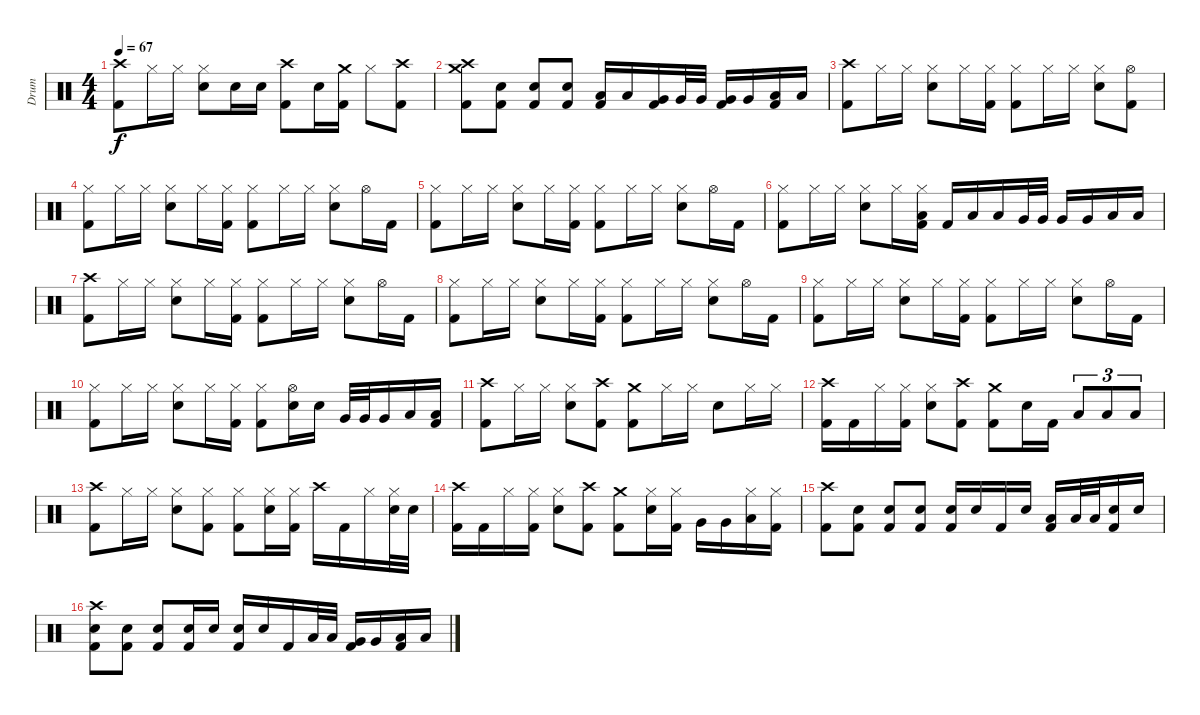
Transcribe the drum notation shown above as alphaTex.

\track ("Drum" "Drum") {instrument percussion}
\staff {score}
\articulation defaults
\ts (4 4)
\tempo 67
\clef neutral
\ks c
("Crash high (hit)" "Kick (hit) 2").8{dy f} "Hi-Hat (closed)".16 "Hi-Hat (closed)".16 ("Hi-Hat (closed)" "Electric Snare (hit)").8 "Electric Snare (hit)".16 "Electric Snare (hit)".16 ("Crash high (hit)" "Kick (hit) 2").8 "Electric Snare (hit)".16 ("Crash medium (hit)" "Kick (hit) 2").16 "Hi-Hat (closed)".8 ("Crash high (hit)" "Kick (hit) 2").8 |
("Crash medium (hit)" "Crash high (hit)" "Kick (hit) 2").8 ("Electric Snare (hit)" "Kick (hit) 2").8 ("Electric Snare (hit)" "Kick (hit) 2").8 ("Electric Snare (hit)" "Kick (hit) 2").8 ("Low Tom (hit)" "Kick (hit) 2").16 "Low Tom (hit)".16 ("Very Low Tom (hit)" "Kick (hit) 2").16 "Very Low Tom (hit)".32 "Very Low Tom (hit)".32 ("Very Low Tom (hit)" "Kick (hit) 2").16 "Very Low Tom (hit)".16 ("Low Floor Tom (hit)" "Kick (hit) 2").16 "Low Floor Tom (hit)".16 |
("Crash high (hit)" "Kick (hit) 2").8 "Hi-Hat (closed)".16 "Hi-Hat (closed)".16 ("Hi-Hat (closed)" "Electric Snare (hit)").8 "Hi-Hat (closed)".16 ("Hi-Hat (closed)" "Kick (hit) 2").16 ("Hi-Hat (closed)" "Kick (hit) 2").8 "Hi-Hat (closed)".16 "Hi-Hat (closed)".16 ("Hi-Hat (closed)" "Electric Snare (hit)").8 ("Hi-Hat (open)" "Kick (hit) 2").8 |
("Hi-Hat (closed)" "Kick (hit) 2").8 "Hi-Hat (closed)".16 "Hi-Hat (closed)".16 ("Hi-Hat (closed)" "Electric Snare (hit)").8 "Hi-Hat (closed)".16 ("Hi-Hat (closed)" "Kick (hit) 2").16 ("Hi-Hat (closed)" "Kick (hit) 2").8 "Hi-Hat (closed)".16 "Hi-Hat (closed)".16 ("Hi-Hat (closed)" "Electric Snare (hit)").8 "Hi-Hat (open)".16 "Kick (hit) 2".16 |
("Hi-Hat (closed)" "Kick (hit) 2").8 "Hi-Hat (closed)".16 "Hi-Hat (closed)".16 ("Hi-Hat (closed)" "Electric Snare (hit)").8 "Hi-Hat (closed)".16 ("Hi-Hat (closed)" "Kick (hit) 2").16 ("Hi-Hat (closed)" "Kick (hit) 2").8 "Hi-Hat (closed)".16 "Hi-Hat (closed)".16 ("Hi-Hat (closed)" "Electric Snare (hit)").8 "Hi-Hat (open)".16 "Kick (hit) 2".16 |
("Hi-Hat (closed)" "Kick (hit) 2").8 "Hi-Hat (closed)".16 "Hi-Hat (closed)".16 ("Hi-Hat (closed)" "Electric Snare (hit)").8 "Hi-Hat (closed)".16 ("Hi-Hat (closed)" "Low Floor Tom (hit)" "Kick (hit) 2").16 "Kick (hit) 2".16 "Low Tom (hit)".16 "Low Tom (hit)".16 "Very Low Tom (hit)".32 "Very Low Tom (hit)".32 "Very Low Tom (hit)".16 "Very Low Tom (hit)".16 "Low Floor Tom (hit)".16 "Low Floor Tom (hit)".16 |
("Crash high (hit)" "Kick (hit) 2").8 "Hi-Hat (closed)".16 "Hi-Hat (closed)".16 ("Hi-Hat (closed)" "Electric Snare (hit)").8 "Hi-Hat (closed)".16 ("Hi-Hat (closed)" "Kick (hit) 2").16 ("Hi-Hat (closed)" "Kick (hit) 2").8 "Hi-Hat (closed)".16 "Hi-Hat (closed)".16 ("Hi-Hat (closed)" "Electric Snare (hit)").8 "Hi-Hat (open)".16 "Kick (hit) 2".16 |
("Hi-Hat (closed)" "Kick (hit) 2").8 "Hi-Hat (closed)".16 "Hi-Hat (closed)".16 ("Hi-Hat (closed)" "Electric Snare (hit)").8 "Hi-Hat (closed)".16 ("Hi-Hat (closed)" "Kick (hit) 2").16 ("Hi-Hat (closed)" "Kick (hit) 2").8 "Hi-Hat (closed)".16 "Hi-Hat (closed)".16 ("Hi-Hat (closed)" "Electric Snare (hit)").8 "Hi-Hat (open)".16 "Kick (hit) 2".16 |
("Hi-Hat (closed)" "Kick (hit) 2").8 "Hi-Hat (closed)".16 "Hi-Hat (closed)".16 ("Hi-Hat (closed)" "Electric Snare (hit)").8 "Hi-Hat (closed)".16 ("Hi-Hat (closed)" "Kick (hit) 2").16 ("Hi-Hat (closed)" "Kick (hit) 2").8 "Hi-Hat (closed)".16 "Hi-Hat (closed)".16 ("Hi-Hat (closed)" "Electric Snare (hit)").8 "Hi-Hat (open)".16 "Kick (hit) 2".16 |
("Hi-Hat (closed)" "Kick (hit) 2").8 "Hi-Hat (closed)".16 "Hi-Hat (closed)".16 ("Hi-Hat (closed)" "Electric Snare (hit)").8 "Hi-Hat (closed)".16 ("Hi-Hat (closed)" "Kick (hit) 2").16 ("Hi-Hat (closed)" "Kick (hit) 2").8 ("Hi-Hat (open)" "Electric Snare (hit)").16 "Electric Snare (hit)".16 "Very Low Tom (hit)".32 "Very Low Tom (hit)".32 "Very Low Tom (hit)".16 "Low Floor Tom (hit)".16 ("Low Floor Tom (hit)" "Kick (hit) 2").16 |
("Crash high (hit)" "Kick (hit) 2").8 "Hi-Hat (closed)".16 "Hi-Hat (closed)".16 ("Hi-Hat (closed)" "Electric Snare (hit)").8 ("Crash high (hit)" "Kick (hit) 2").8 ("Crash medium (hit)" "Kick (hit) 2").8 "Hi-Hat (closed)".16 "Hi-Hat (closed)".16 "Electric Snare (hit)".8 "Hi-Hat (closed)".16 "Hi-Hat (closed)".16 |
("Crash high (hit)" "Kick (hit) 2").16 "Kick (hit) 2".16 "Hi-Hat (closed)".16 ("Hi-Hat (closed)" "Kick (hit) 2").16 ("Hi-Hat (closed)" "Electric Snare (hit)").8 ("Crash high (hit)" "Kick (hit) 2").8 ("Crash medium (hit)" "Kick (hit) 2").8 "Electric Snare (hit)".16 "Kick (hit) 2".16 "Low Floor Tom (hit)".8{tu (3 2)} "Low Floor Tom (hit)".8{tu (3 2)} "Low Floor Tom (hit)".8{tu (3 2)} |
("Crash high (hit)" "Kick (hit) 2").8 "Hi-Hat (closed)".16 "Hi-Hat (closed)".16 ("Hi-Hat (closed)" "Electric Snare (hit)").8 ("Hi-Hat (closed)" "Kick (hit) 2").8 ("Hi-Hat (closed)" "Kick (hit) 2").8 ("Hi-Hat (closed)" "Electric Snare (hit)").16 ("Hi-Hat (closed)" "Kick (hit) 2").16 "Crash high (hit)".16 "Kick (hit) 2".16 "Hi-Hat (closed)".16 ("Hi-Hat (closed)" "Electric Snare (hit)").32 "Electric Snare (hit)".32 |
("Crash high (hit)" "Kick (hit) 2").16 "Kick (hit) 2".16 "Hi-Hat (closed)".16 ("Hi-Hat (closed)" "Kick (hit) 2").16 ("Hi-Hat (closed)" "Electric Snare (hit)").8 ("Crash high (hit)" "Kick (hit) 2").8 ("Crash medium (hit)" "Kick (hit) 2").8 ("Hi-Hat (closed)" "Electric Snare (hit)").16 ("Hi-Hat (closed)" "Kick (hit) 2").16 "Very Low Tom (hit)".16 "Very Low Tom (hit)".16 ("Hi-Hat (closed)" "Low Floor Tom (hit)").16 ("Hi-Hat (closed)" "Kick (hit) 2").16 |
("Crash high (hit)" "Kick (hit) 2").8 ("Electric Snare (hit)" "Kick (hit) 2").8 ("Electric Snare (hit)" "Kick (hit) 2").8 ("Electric Snare (hit)" "Kick (hit) 2").8 ("Electric Snare (hit)" "Kick (hit) 2").16 "Electric Snare (hit)".16 "Kick (hit) 2".16 "Electric Snare (hit)".16 ("Low Floor Tom (hit)" "Kick (hit) 2").16 "Low Floor Tom (hit)".32 "Low Floor Tom (hit)".32 ("Electric Snare (hit)" "Kick (hit) 2").16 "Electric Snare (hit)".16 |
("Crash high (hit)" "Electric Snare (hit)" "Kick (hit) 2").8 ("Electric Snare (hit)" "Kick (hit) 2").8 ("Electric Snare (hit)" "Kick (hit) 2").8 ("Electric Snare (hit)" "Kick (hit) 2").16 "Electric Snare (hit)".16 ("Electric Snare (hit)" "Kick (hit) 2").16 "Electric Snare (hit)".16 "Kick (hit) 2".16 "Low Tom (hit)".32 "Low Tom (hit)".32 ("Very Low Tom (hit)" "Kick (hit) 2").16 "Very Low Tom (hit)".16 ("Low Floor Tom (hit)" "Kick (hit) 2").16 "Low Floor Tom (hit)".16
